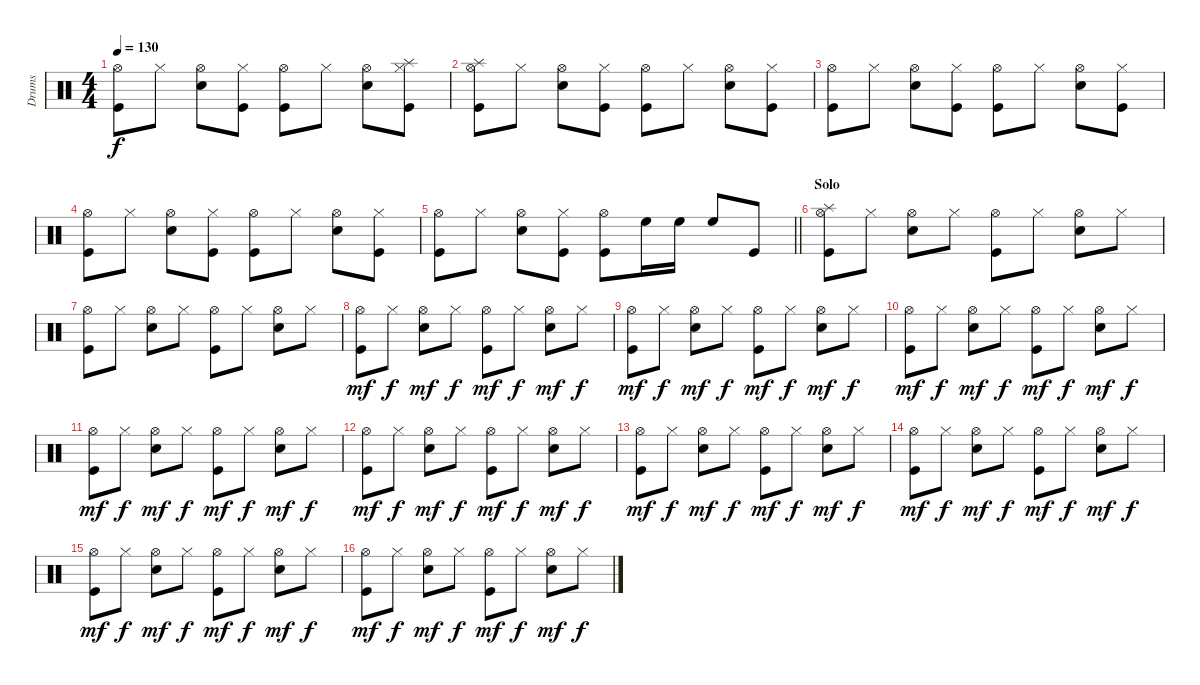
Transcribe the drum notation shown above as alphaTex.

\track ("Drums" "Drums") {instrument percussion}
\staff {score}
\articulation defaults
\ts (4 4)
\tempo 130
\clef neutral
\ks c
("Hi-Hat (open)" "Kick (hit)").8{dy f} "Hi-Hat (closed)".8 ("Electric Snare (hit)" "Hi-Hat (open)").8 ("Hi-Hat (closed)" "Kick (hit)").8 ("Hi-Hat (open)" "Kick (hit)").8 "Hi-Hat (closed)".8 ("Electric Snare (hit)" "Hi-Hat (open)").8 ("Splash (hit)" "Hi-Hat (closed)" "Kick (hit)").8 |
("Splash (hit)" "Hi-Hat (open)" "Kick (hit)").8 "Hi-Hat (closed)".8 ("Electric Snare (hit)" "Hi-Hat (open)").8 ("Hi-Hat (closed)" "Kick (hit)").8 ("Hi-Hat (open)" "Kick (hit)").8 "Hi-Hat (closed)".8 ("Electric Snare (hit)" "Hi-Hat (open)").8 ("Hi-Hat (closed)" "Kick (hit)").8 |
("Hi-Hat (open)" "Kick (hit)").8 "Hi-Hat (closed)".8 ("Electric Snare (hit)" "Hi-Hat (open)").8 ("Hi-Hat (closed)" "Kick (hit)").8 ("Hi-Hat (open)" "Kick (hit)").8 "Hi-Hat (closed)".8 ("Electric Snare (hit)" "Hi-Hat (open)").8 ("Hi-Hat (closed)" "Kick (hit)").8 |
("Hi-Hat (open)" "Kick (hit)").8 "Hi-Hat (closed)".8 ("Electric Snare (hit)" "Hi-Hat (open)").8 ("Hi-Hat (closed)" "Kick (hit)").8 ("Hi-Hat (open)" "Kick (hit)").8 "Hi-Hat (closed)".8 ("Electric Snare (hit)" "Hi-Hat (open)").8 ("Hi-Hat (closed)" "Kick (hit)").8 |
\barLineRight lightlight
("Hi-Hat (open)" "Kick (hit)").8 "Hi-Hat (closed)".8 ("Electric Snare (hit)" "Hi-Hat (open)").8 ("Hi-Hat (closed)" "Kick (hit)").8 ("Hi-Hat (open)" "Kick (hit)").8 "High Floor Tom (hit)".16 "High Floor Tom (hit)".16 "High Floor Tom (hit)".8 "Kick (hit)".8 |
\section ("" "Solo")
("Splash (hit)" "Hi-Hat (open)" "Kick (hit)").8 "Hi-Hat (closed)".8 ("Electric Snare (hit)" "Hi-Hat (open)").8 "Hi-Hat (closed)".8 ("Hi-Hat (open)" "Kick (hit)").8 "Hi-Hat (closed)".8 ("Electric Snare (hit)" "Hi-Hat (open)").8 "Hi-Hat (closed)".8 |
("Hi-Hat (open)" "Kick (hit)").8 "Hi-Hat (closed)".8 ("Electric Snare (hit)" "Hi-Hat (open)").8 "Hi-Hat (closed)".8 ("Hi-Hat (open)" "Kick (hit)").8 "Hi-Hat (closed)".8 ("Electric Snare (hit)" "Hi-Hat (open)").8 "Hi-Hat (closed)".8 |
("Hi-Hat (open)" "Kick (hit)").8{dy mf} "Hi-Hat (closed)".8{dy f} ("Electric Snare (hit)" "Hi-Hat (open)").8{dy mf} "Hi-Hat (closed)".8{dy f} ("Hi-Hat (open)" "Kick (hit)").8{dy mf} "Hi-Hat (closed)".8{dy f} ("Electric Snare (hit)" "Hi-Hat (open)").8{dy mf} "Hi-Hat (closed)".8{dy f} |
("Hi-Hat (open)" "Kick (hit)").8{dy mf} "Hi-Hat (closed)".8{dy f} ("Electric Snare (hit)" "Hi-Hat (open)").8{dy mf} "Hi-Hat (closed)".8{dy f} ("Hi-Hat (open)" "Kick (hit)").8{dy mf} "Hi-Hat (closed)".8{dy f} ("Electric Snare (hit)" "Hi-Hat (open)").8{dy mf} "Hi-Hat (closed)".8{dy f} |
("Hi-Hat (open)" "Kick (hit)").8{dy mf} "Hi-Hat (closed)".8{dy f} ("Electric Snare (hit)" "Hi-Hat (open)").8{dy mf} "Hi-Hat (closed)".8{dy f} ("Hi-Hat (open)" "Kick (hit)").8{dy mf} "Hi-Hat (closed)".8{dy f} ("Electric Snare (hit)" "Hi-Hat (open)").8{dy mf} "Hi-Hat (closed)".8{dy f} |
("Hi-Hat (open)" "Kick (hit)").8{dy mf} "Hi-Hat (closed)".8{dy f} ("Electric Snare (hit)" "Hi-Hat (open)").8{dy mf} "Hi-Hat (closed)".8{dy f} ("Hi-Hat (open)" "Kick (hit)").8{dy mf} "Hi-Hat (closed)".8{dy f} ("Electric Snare (hit)" "Hi-Hat (open)").8{dy mf} "Hi-Hat (closed)".8{dy f} |
("Hi-Hat (open)" "Kick (hit)").8{dy mf} "Hi-Hat (closed)".8{dy f} ("Electric Snare (hit)" "Hi-Hat (open)").8{dy mf} "Hi-Hat (closed)".8{dy f} ("Hi-Hat (open)" "Kick (hit)").8{dy mf} "Hi-Hat (closed)".8{dy f} ("Electric Snare (hit)" "Hi-Hat (open)").8{dy mf} "Hi-Hat (closed)".8{dy f} |
("Hi-Hat (open)" "Kick (hit)").8{dy mf} "Hi-Hat (closed)".8{dy f} ("Electric Snare (hit)" "Hi-Hat (open)").8{dy mf} "Hi-Hat (closed)".8{dy f} ("Hi-Hat (open)" "Kick (hit)").8{dy mf} "Hi-Hat (closed)".8{dy f} ("Electric Snare (hit)" "Hi-Hat (open)").8{dy mf} "Hi-Hat (closed)".8{dy f} |
("Hi-Hat (open)" "Kick (hit)").8{dy mf} "Hi-Hat (closed)".8{dy f} ("Electric Snare (hit)" "Hi-Hat (open)").8{dy mf} "Hi-Hat (closed)".8{dy f} ("Hi-Hat (open)" "Kick (hit)").8{dy mf} "Hi-Hat (closed)".8{dy f} ("Electric Snare (hit)" "Hi-Hat (open)").8{dy mf} "Hi-Hat (closed)".8{dy f} |
("Hi-Hat (open)" "Kick (hit)").8{dy mf} "Hi-Hat (closed)".8{dy f} ("Electric Snare (hit)" "Hi-Hat (open)").8{dy mf} "Hi-Hat (closed)".8{dy f} ("Hi-Hat (open)" "Kick (hit)").8{dy mf} "Hi-Hat (closed)".8{dy f} ("Electric Snare (hit)" "Hi-Hat (open)").8{dy mf} "Hi-Hat (closed)".8{dy f} |
("Hi-Hat (open)" "Kick (hit)").8{dy mf} "Hi-Hat (closed)".8{dy f} ("Electric Snare (hit)" "Hi-Hat (open)").8{dy mf} "Hi-Hat (closed)".8{dy f} ("Hi-Hat (open)" "Kick (hit)").8{dy mf} "Hi-Hat (closed)".8{dy f} ("Electric Snare (hit)" "Hi-Hat (open)").8{dy mf} "Hi-Hat (closed)".8{dy f}
